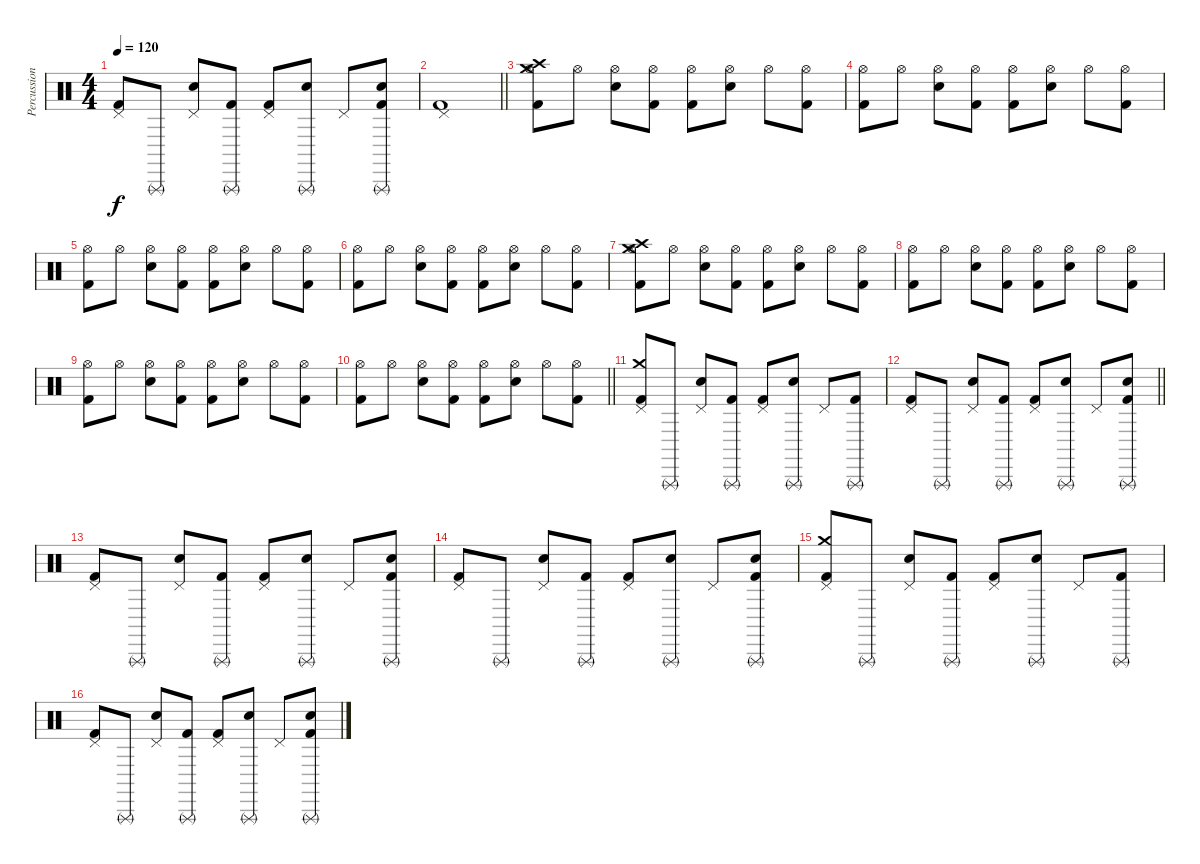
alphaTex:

\track ("Percussion" "Percussion") {instrument percussion}
\staff {score}
\articulation defaults
\ts (4 4)
\tempo 120
\clef neutral
\ks c
("Pedal Hi-Hat (hit)" "Kick (hit) 2").8{dy f} "Triangle (rnute)".8 ("Pedal Hi-Hat (hit)" "Snare (hit) 2").8 ("Triangle (rnute)" "Kick (hit) 2").8 ("Pedal Hi-Hat (hit)" "Kick (hit) 2").8 ("Triangle (rnute)" "Snare (hit) 2").8 "Pedal Hi-Hat (hit)".8 ("Triangle (rnute)" "Snare (hit) 2" "Kick (hit) 2").8 |
\barLineRight lightlight
("Pedal Hi-Hat (hit)" "Kick (hit) 2").1 |
("Crash medium (hit)" "Crash high (hit)" "Hi-Hat (open)" "Kick (hit) 2").8 "Hi-Hat (open)".8 ("Hi-Hat (open)" "Snare (hit) 2").8 ("Hi-Hat (open)" "Kick (hit) 2").8 ("Hi-Hat (open)" "Kick (hit) 2").8 ("Hi-Hat (open)" "Snare (hit) 2").8 "Hi-Hat (open)".8 ("Hi-Hat (open)" "Kick (hit) 2").8 |
("Hi-Hat (open)" "Kick (hit) 2").8 "Hi-Hat (open)".8 ("Hi-Hat (open)" "Snare (hit) 2").8 ("Hi-Hat (open)" "Kick (hit) 2").8 ("Hi-Hat (open)" "Kick (hit) 2").8 ("Hi-Hat (open)" "Snare (hit) 2").8 "Hi-Hat (open)".8 ("Hi-Hat (open)" "Kick (hit) 2").8 |
("Hi-Hat (open)" "Kick (hit) 2").8 "Hi-Hat (open)".8 ("Hi-Hat (open)" "Snare (hit) 2").8 ("Hi-Hat (open)" "Kick (hit) 2").8 ("Hi-Hat (open)" "Kick (hit) 2").8 ("Hi-Hat (open)" "Snare (hit) 2").8 "Hi-Hat (open)".8 ("Hi-Hat (open)" "Kick (hit) 2").8 |
("Hi-Hat (open)" "Kick (hit) 2").8 "Hi-Hat (open)".8 ("Hi-Hat (open)" "Snare (hit) 2").8 ("Hi-Hat (open)" "Kick (hit) 2").8 ("Hi-Hat (open)" "Kick (hit) 2").8 ("Hi-Hat (open)" "Snare (hit) 2").8 "Hi-Hat (open)".8 ("Hi-Hat (open)" "Kick (hit) 2").8 |
("Crash medium (hit)" "Crash high (hit)" "Hi-Hat (open)" "Kick (hit) 2").8 "Hi-Hat (open)".8 ("Hi-Hat (open)" "Snare (hit) 2").8 ("Hi-Hat (open)" "Kick (hit) 2").8 ("Hi-Hat (open)" "Kick (hit) 2").8 ("Hi-Hat (open)" "Snare (hit) 2").8 "Hi-Hat (open)".8 ("Hi-Hat (open)" "Kick (hit) 2").8 |
("Hi-Hat (open)" "Kick (hit) 2").8 "Hi-Hat (open)".8 ("Hi-Hat (open)" "Snare (hit) 2").8 ("Hi-Hat (open)" "Kick (hit) 2").8 ("Hi-Hat (open)" "Kick (hit) 2").8 ("Hi-Hat (open)" "Snare (hit) 2").8 "Hi-Hat (open)".8 ("Hi-Hat (open)" "Kick (hit) 2").8 |
("Hi-Hat (open)" "Kick (hit) 2").8 "Hi-Hat (open)".8 ("Hi-Hat (open)" "Snare (hit) 2").8 ("Hi-Hat (open)" "Kick (hit) 2").8 ("Hi-Hat (open)" "Kick (hit) 2").8 ("Hi-Hat (open)" "Snare (hit) 2").8 "Hi-Hat (open)".8 ("Hi-Hat (open)" "Kick (hit) 2").8 |
\barLineRight lightlight
("Hi-Hat (open)" "Kick (hit) 2").8 "Hi-Hat (open)".8 ("Hi-Hat (open)" "Snare (hit) 2").8 ("Hi-Hat (open)" "Kick (hit) 2").8 ("Hi-Hat (open)" "Kick (hit) 2").8 ("Hi-Hat (open)" "Snare (hit) 2").8 "Hi-Hat (open)".8 ("Hi-Hat (open)" "Kick (hit) 2").8 |
("Crash medium (hit)" "Pedal Hi-Hat (hit)" "Kick (hit) 2").8 "Triangle (rnute)".8 ("Pedal Hi-Hat (hit)" "Snare (hit) 2").8 ("Triangle (rnute)" "Kick (hit) 2").8 ("Pedal Hi-Hat (hit)" "Kick (hit) 2").8 ("Triangle (rnute)" "Snare (hit) 2").8 "Pedal Hi-Hat (hit)".8 ("Triangle (rnute)" "Kick (hit) 2").8 |
\barLineRight lightlight
("Pedal Hi-Hat (hit)" "Kick (hit) 2").8 "Triangle (rnute)".8 ("Pedal Hi-Hat (hit)" "Snare (hit) 2").8 ("Triangle (rnute)" "Kick (hit) 2").8 ("Pedal Hi-Hat (hit)" "Kick (hit) 2").8 ("Triangle (rnute)" "Snare (hit) 2").8 "Pedal Hi-Hat (hit)".8 ("Triangle (rnute)" "Snare (hit) 2" "Kick (hit) 2").8 |
("Pedal Hi-Hat (hit)" "Kick (hit) 2").8 "Triangle (rnute)".8 ("Pedal Hi-Hat (hit)" "Snare (hit) 2").8 ("Triangle (rnute)" "Kick (hit) 2").8 ("Pedal Hi-Hat (hit)" "Kick (hit) 2").8 ("Triangle (rnute)" "Snare (hit) 2").8 "Pedal Hi-Hat (hit)".8 ("Triangle (rnute)" "Snare (hit) 2" "Kick (hit) 2").8 |
("Pedal Hi-Hat (hit)" "Kick (hit) 2").8 "Triangle (rnute)".8 ("Pedal Hi-Hat (hit)" "Snare (hit) 2").8 ("Triangle (rnute)" "Kick (hit) 2").8 ("Pedal Hi-Hat (hit)" "Kick (hit) 2").8 ("Triangle (rnute)" "Snare (hit) 2").8 "Pedal Hi-Hat (hit)".8 ("Triangle (rnute)" "Snare (hit) 2" "Kick (hit) 2").8 |
("Crash medium (hit)" "Pedal Hi-Hat (hit)" "Kick (hit) 2").8 "Triangle (rnute)".8 ("Pedal Hi-Hat (hit)" "Snare (hit) 2").8 ("Triangle (rnute)" "Kick (hit) 2").8 ("Pedal Hi-Hat (hit)" "Kick (hit) 2").8 ("Triangle (rnute)" "Snare (hit) 2").8 "Pedal Hi-Hat (hit)".8 ("Triangle (rnute)" "Kick (hit) 2").8 |
("Pedal Hi-Hat (hit)" "Kick (hit) 2").8 "Triangle (rnute)".8 ("Pedal Hi-Hat (hit)" "Snare (hit) 2").8 ("Triangle (rnute)" "Kick (hit) 2").8 ("Pedal Hi-Hat (hit)" "Kick (hit) 2").8 ("Triangle (rnute)" "Snare (hit) 2").8 "Pedal Hi-Hat (hit)".8 ("Triangle (rnute)" "Snare (hit) 2" "Kick (hit) 2").8
